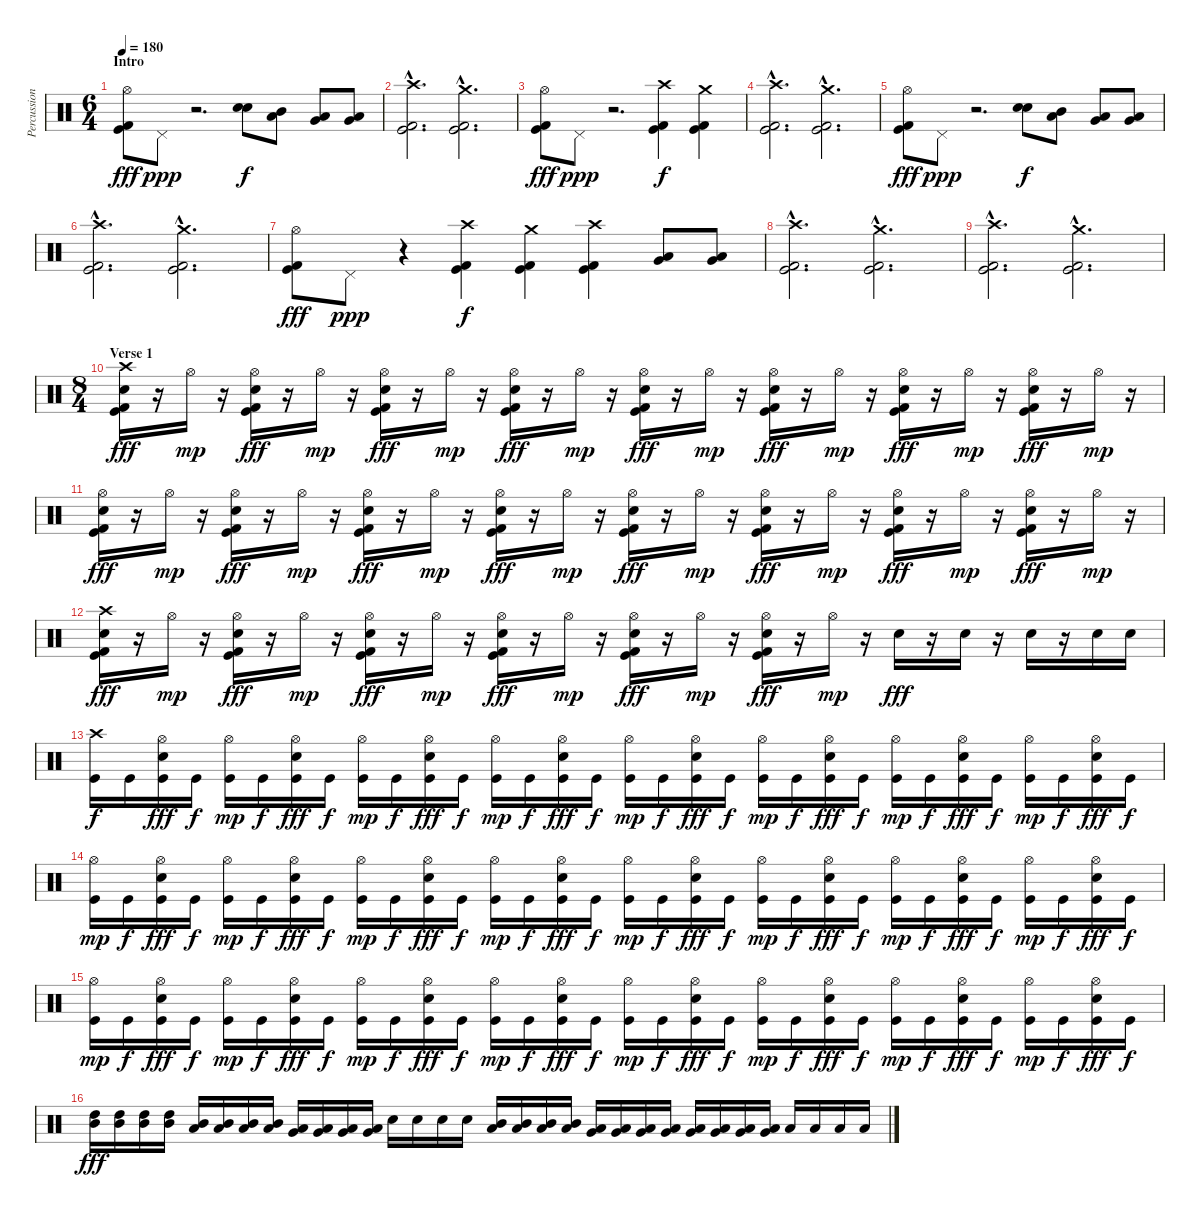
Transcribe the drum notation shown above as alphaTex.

\track ("Percussion" "Percussion") {instrument percussion}
\staff {score}
\articulation defaults
\ts (6 4)
\section ("" "Intro")
\tempo 180
\clef neutral
\ks c
("Hi-Hat (open)" "Kick (hit)" "Kick (hit) 2").8{dy fff} "Pedal Hi-Hat (hit)".8{dy ppp} r.2{d} ("Snare (hit) 2" "Snare (hit) 2").8{dy f} ("Low Tom (hit)" "Mid Tom (hit)").8 ("Very Low Tom (hit)" "Low Tom (hit)").8 ("Very Low Tom (hit)" "Low Tom (hit)").8 |
("Crash high (hit)"{hac} "Kick (hit)"{hac} "Kick (hit) 2"{hac}).2{d} ("Crash medium (hit)"{hac} "Kick (hit)"{hac} "Kick (hit) 2"{hac}).2{d} |
("Hi-Hat (open)" "Kick (hit)" "Kick (hit) 2").8{dy fff} "Pedal Hi-Hat (hit)".8{dy ppp} r.2{d} ("Crash high (hit)" "Kick (hit)" "Kick (hit) 2").4{dy f} ("Crash medium (hit)" "Kick (hit)" "Kick (hit) 2").4 |
("Crash high (hit)"{hac} "Kick (hit)"{hac} "Kick (hit) 2"{hac}).2{d} ("Crash medium (hit)"{hac} "Kick (hit)"{hac} "Kick (hit) 2"{hac}).2{d} |
("Hi-Hat (open)" "Kick (hit)" "Kick (hit) 2").8{dy fff} "Pedal Hi-Hat (hit)".8{dy ppp} r.2{d} ("Snare (hit) 2" "Snare (hit) 2").8{dy f} ("Low Tom (hit)" "Mid Tom (hit)").8 ("Very Low Tom (hit)" "Low Tom (hit)").8 ("Very Low Tom (hit)" "Low Tom (hit)").8 |
("Crash high (hit)"{hac} "Kick (hit)"{hac} "Kick (hit) 2"{hac}).2{d} ("Crash medium (hit)"{hac} "Kick (hit)"{hac} "Kick (hit) 2"{hac}).2{d} |
("Hi-Hat (open)" "Kick (hit)" "Kick (hit) 2").8{dy fff} "Pedal Hi-Hat (hit)".8{dy ppp} r.4 ("Crash high (hit)" "Kick (hit)" "Kick (hit) 2").4{dy f} ("Crash medium (hit)" "Kick (hit)" "Kick (hit) 2").4 ("Crash high (hit)" "Kick (hit)" "Kick (hit) 2").4 ("Very Low Tom (hit)" "Low Tom (hit)").8 ("Very Low Tom (hit)" "Low Tom (hit)").8 |
("Crash high (hit)"{hac} "Kick (hit)"{hac} "Kick (hit) 2"{hac}).2{d} ("Crash medium (hit)"{hac} "Kick (hit)"{hac} "Kick (hit) 2"{hac}).2{d} |
("Crash high (hit)"{hac} "Kick (hit)"{hac} "Kick (hit) 2"{hac}).2{d} ("Crash medium (hit)"{hac} "Kick (hit)"{hac} "Kick (hit) 2"{hac}).2{d} |
\ts (8 4)
\section ("" "Verse 1")
("Crash high (hit)" "Snare (hit) 2" "Kick (hit)" "Kick (hit) 2").16{dy fff} r.16 "Hi-Hat (open)".16{dy mp} r.16 ("Hi-Hat (open)" "Snare (hit) 2" "Kick (hit)" "Kick (hit) 2").16{dy fff} r.16 "Hi-Hat (open)".16{dy mp} r.16 ("Hi-Hat (open)" "Snare (hit) 2" "Kick (hit)" "Kick (hit) 2").16{dy fff} r.16 "Hi-Hat (open)".16{dy mp} r.16 ("Hi-Hat (open)" "Snare (hit) 2" "Kick (hit)" "Kick (hit) 2").16{dy fff} r.16 "Hi-Hat (open)".16{dy mp} r.16 ("Hi-Hat (open)" "Snare (hit) 2" "Kick (hit)" "Kick (hit) 2").16{dy fff} r.16 "Hi-Hat (open)".16{dy mp} r.16 ("Hi-Hat (open)" "Snare (hit) 2" "Kick (hit)" "Kick (hit) 2").16{dy fff} r.16 "Hi-Hat (open)".16{dy mp} r.16 ("Hi-Hat (open)" "Snare (hit) 2" "Kick (hit)" "Kick (hit) 2").16{dy fff} r.16 "Hi-Hat (open)".16{dy mp} r.16 ("Hi-Hat (open)" "Snare (hit) 2" "Kick (hit)" "Kick (hit) 2").16{dy fff} r.16 "Hi-Hat (open)".16{dy mp} r.16 |
("Hi-Hat (open)" "Snare (hit) 2" "Kick (hit)" "Kick (hit) 2").16{dy fff} r.16 "Hi-Hat (open)".16{dy mp} r.16 ("Hi-Hat (open)" "Snare (hit) 2" "Kick (hit)" "Kick (hit) 2").16{dy fff} r.16 "Hi-Hat (open)".16{dy mp} r.16 ("Hi-Hat (open)" "Snare (hit) 2" "Kick (hit)" "Kick (hit) 2").16{dy fff} r.16 "Hi-Hat (open)".16{dy mp} r.16 ("Hi-Hat (open)" "Snare (hit) 2" "Kick (hit)" "Kick (hit) 2").16{dy fff} r.16 "Hi-Hat (open)".16{dy mp} r.16 ("Hi-Hat (open)" "Snare (hit) 2" "Kick (hit)" "Kick (hit) 2").16{dy fff} r.16 "Hi-Hat (open)".16{dy mp} r.16 ("Hi-Hat (open)" "Snare (hit) 2" "Kick (hit)" "Kick (hit) 2").16{dy fff} r.16 "Hi-Hat (open)".16{dy mp} r.16 ("Hi-Hat (open)" "Snare (hit) 2" "Kick (hit)" "Kick (hit) 2").16{dy fff} r.16 "Hi-Hat (open)".16{dy mp} r.16 ("Hi-Hat (open)" "Snare (hit) 2" "Kick (hit)" "Kick (hit) 2").16{dy fff} r.16 "Hi-Hat (open)".16{dy mp} r.16 |
("Crash high (hit)" "Snare (hit) 2" "Kick (hit)" "Kick (hit) 2").16{dy fff} r.16 "Hi-Hat (open)".16{dy mp} r.16 ("Hi-Hat (open)" "Snare (hit) 2" "Kick (hit)" "Kick (hit) 2").16{dy fff} r.16 "Hi-Hat (open)".16{dy mp} r.16 ("Hi-Hat (open)" "Snare (hit) 2" "Kick (hit)" "Kick (hit) 2").16{dy fff} r.16 "Hi-Hat (open)".16{dy mp} r.16 ("Hi-Hat (open)" "Snare (hit) 2" "Kick (hit)" "Kick (hit) 2").16{dy fff} r.16 "Hi-Hat (open)".16{dy mp} r.16 ("Hi-Hat (open)" "Snare (hit) 2" "Kick (hit)" "Kick (hit) 2").16{dy fff} r.16 "Hi-Hat (open)".16{dy mp} r.16 ("Hi-Hat (open)" "Snare (hit) 2" "Kick (hit)" "Kick (hit) 2").16{dy fff} r.16 "Hi-Hat (open)".16{dy mp} r.16 "Snare (hit) 2".16{dy fff} r.16 "Snare (hit) 2".16 r.16 "Snare (hit) 2".16 r.16 "Snare (hit) 2".16 "Snare (hit) 2".16 |
("Crash high (hit)" "Kick (hit)").16{dy f} "Kick (hit)".16 ("Hi-Hat (open)" "Snare (hit) 2" "Kick (hit)").16{dy fff} "Kick (hit)".16{dy f} ("Hi-Hat (open)" "Kick (hit)").16{dy mp} "Kick (hit)".16{dy f} ("Hi-Hat (open)" "Snare (hit) 2" "Kick (hit)").16{dy fff} "Kick (hit)".16{dy f} ("Hi-Hat (open)" "Kick (hit)").16{dy mp} "Kick (hit)".16{dy f} ("Hi-Hat (open)" "Snare (hit) 2" "Kick (hit)").16{dy fff} "Kick (hit)".16{dy f} ("Hi-Hat (open)" "Kick (hit)").16{dy mp} "Kick (hit)".16{dy f} ("Hi-Hat (open)" "Snare (hit) 2" "Kick (hit)").16{dy fff} "Kick (hit)".16{dy f} ("Hi-Hat (open)" "Kick (hit)").16{dy mp} "Kick (hit)".16{dy f} ("Hi-Hat (open)" "Snare (hit) 2" "Kick (hit)").16{dy fff} "Kick (hit)".16{dy f} ("Hi-Hat (open)" "Kick (hit)").16{dy mp} "Kick (hit)".16{dy f} ("Hi-Hat (open)" "Snare (hit) 2" "Kick (hit)").16{dy fff} "Kick (hit)".16{dy f} ("Hi-Hat (open)" "Kick (hit)").16{dy mp} "Kick (hit)".16{dy f} ("Hi-Hat (open)" "Snare (hit) 2" "Kick (hit)").16{dy fff} "Kick (hit)".16{dy f} ("Hi-Hat (open)" "Kick (hit)").16{dy mp} "Kick (hit)".16{dy f} ("Hi-Hat (open)" "Snare (hit) 2" "Kick (hit)").16{dy fff} "Kick (hit)".16{dy f} |
("Hi-Hat (open)" "Kick (hit)").16{dy mp} "Kick (hit)".16{dy f} ("Hi-Hat (open)" "Snare (hit) 2" "Kick (hit)").16{dy fff} "Kick (hit)".16{dy f} ("Hi-Hat (open)" "Kick (hit)").16{dy mp} "Kick (hit)".16{dy f} ("Hi-Hat (open)" "Snare (hit) 2" "Kick (hit)").16{dy fff} "Kick (hit)".16{dy f} ("Hi-Hat (open)" "Kick (hit)").16{dy mp} "Kick (hit)".16{dy f} ("Hi-Hat (open)" "Snare (hit) 2" "Kick (hit)").16{dy fff} "Kick (hit)".16{dy f} ("Hi-Hat (open)" "Kick (hit)").16{dy mp} "Kick (hit)".16{dy f} ("Hi-Hat (open)" "Snare (hit) 2" "Kick (hit)").16{dy fff} "Kick (hit)".16{dy f} ("Hi-Hat (open)" "Kick (hit)").16{dy mp} "Kick (hit)".16{dy f} ("Hi-Hat (open)" "Snare (hit) 2" "Kick (hit)").16{dy fff} "Kick (hit)".16{dy f} ("Hi-Hat (open)" "Kick (hit)").16{dy mp} "Kick (hit)".16{dy f} ("Hi-Hat (open)" "Snare (hit) 2" "Kick (hit)").16{dy fff} "Kick (hit)".16{dy f} ("Hi-Hat (open)" "Kick (hit)").16{dy mp} "Kick (hit)".16{dy f} ("Hi-Hat (open)" "Snare (hit) 2" "Kick (hit)").16{dy fff} "Kick (hit)".16{dy f} ("Hi-Hat (open)" "Kick (hit)").16{dy mp} "Kick (hit)".16{dy f} ("Hi-Hat (open)" "Snare (hit) 2" "Kick (hit)").16{dy fff} "Kick (hit)".16{dy f} |
("Hi-Hat (open)" "Kick (hit)").16{dy mp} "Kick (hit)".16{dy f} ("Hi-Hat (open)" "Snare (hit) 2" "Kick (hit)").16{dy fff} "Kick (hit)".16{dy f} ("Hi-Hat (open)" "Kick (hit)").16{dy mp} "Kick (hit)".16{dy f} ("Hi-Hat (open)" "Snare (hit) 2" "Kick (hit)").16{dy fff} "Kick (hit)".16{dy f} ("Hi-Hat (open)" "Kick (hit)").16{dy mp} "Kick (hit)".16{dy f} ("Hi-Hat (open)" "Snare (hit) 2" "Kick (hit)").16{dy fff} "Kick (hit)".16{dy f} ("Hi-Hat (open)" "Kick (hit)").16{dy mp} "Kick (hit)".16{dy f} ("Hi-Hat (open)" "Snare (hit) 2" "Kick (hit)").16{dy fff} "Kick (hit)".16{dy f} ("Hi-Hat (open)" "Kick (hit)").16{dy mp} "Kick (hit)".16{dy f} ("Hi-Hat (open)" "Snare (hit) 2" "Kick (hit)").16{dy fff} "Kick (hit)".16{dy f} ("Hi-Hat (open)" "Kick (hit)").16{dy mp} "Kick (hit)".16{dy f} ("Hi-Hat (open)" "Snare (hit) 2" "Kick (hit)").16{dy fff} "Kick (hit)".16{dy f} ("Hi-Hat (open)" "Kick (hit)").16{dy mp} "Kick (hit)".16{dy f} ("Hi-Hat (open)" "Snare (hit) 2" "Kick (hit)").16{dy fff} "Kick (hit)".16{dy f} ("Hi-Hat (open)" "Kick (hit)").16{dy mp} "Kick (hit)".16{dy f} ("Hi-Hat (open)" "Snare (hit) 2" "Kick (hit)").16{dy fff} "Kick (hit)".16{dy f} |
("Mid Tom (hit)" "High Tom (hit)").16{dy fff} ("Mid Tom (hit)" "High Tom (hit)").16 ("Mid Tom (hit)" "High Tom (hit)").16 ("Mid Tom (hit)" "High Tom (hit)").16 ("Mid Tom (hit)" "Low Tom (hit)").16 ("Mid Tom (hit)" "Low Tom (hit)").16 ("Mid Tom (hit)" "Low Tom (hit)").16 ("Mid Tom (hit)" "Low Tom (hit)").16 ("Low Tom (hit)" "Very Low Tom (hit)").16 ("Low Tom (hit)" "Very Low Tom (hit)").16 ("Low Tom (hit)" "Very Low Tom (hit)").16 ("Low Tom (hit)" "Very Low Tom (hit)").16 "Snare (hit) 2".16 "Snare (hit) 2".16 "Snare (hit) 2".16 "Snare (hit) 2".16 ("Mid Tom (hit)" "Low Tom (hit)").16 ("Mid Tom (hit)" "Low Tom (hit)").16 ("Mid Tom (hit)" "Low Tom (hit)").16 ("Mid Tom (hit)" "Low Tom (hit)").16 ("Low Tom (hit)" "Very Low Tom (hit)").16 ("Low Tom (hit)" "Very Low Tom (hit)").16 ("Low Tom (hit)" "Very Low Tom (hit)").16 ("Low Tom (hit)" "Very Low Tom (hit)").16 ("Very Low Tom (hit)" "Low Floor Tom (hit)").16 ("Very Low Tom (hit)" "Low Floor Tom (hit)").16 ("Very Low Tom (hit)" "Low Floor Tom (hit)").16 ("Very Low Tom (hit)" "Low Floor Tom (hit)").16 "Low Floor Tom (hit)".16 "Low Floor Tom (hit)".16 "Low Floor Tom (hit)".16 "Low Floor Tom (hit)".16
